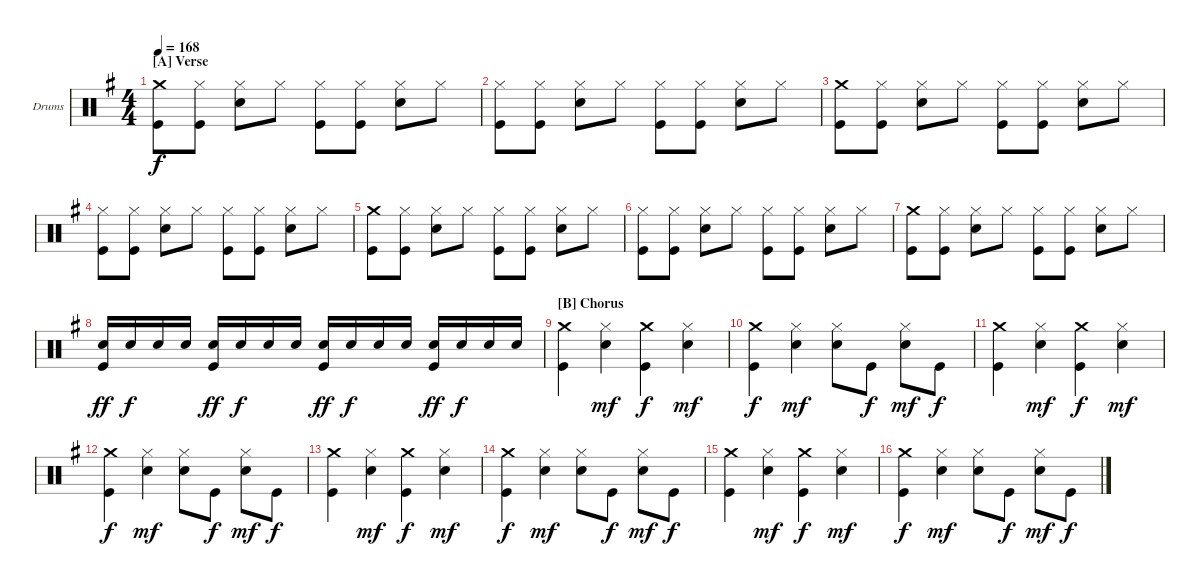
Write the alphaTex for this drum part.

\defaultSystemsLayout 4
\bracketExtendMode groupsimilarinstruments
\firstSystemTrackNameOrientation horizontal
\otherSystemsTrackNameOrientation horizontal
\track ("Drumkit" "Drums") {instrument percussion}
\staff {score}
\articulation defaults
\ts (4 4)
\section ("A" "Verse")
\tempo 168
\clef neutral
\ks g
("Crash medium (hit)" "Kick (hit)").8{dy f} ("Hi-Hat (closed)" "Kick (hit)").8 ("Hi-Hat (closed)" "Snare (hit) 2").8 "Hi-Hat (closed)".8 ("Hi-Hat (closed)" "Kick (hit)").8 ("Hi-Hat (closed)" "Kick (hit)").8 ("Hi-Hat (closed)" "Snare (hit) 2").8 "Hi-Hat (closed)".8 |
("Hi-Hat (closed)" "Kick (hit)").8 ("Hi-Hat (closed)" "Kick (hit)").8 ("Hi-Hat (closed)" "Snare (hit) 2").8 "Hi-Hat (closed)".8 ("Hi-Hat (closed)" "Kick (hit)").8 ("Hi-Hat (closed)" "Kick (hit)").8 ("Hi-Hat (closed)" "Snare (hit) 2").8 "Hi-Hat (closed)".8 |
("Crash medium (hit)" "Kick (hit)").8 ("Hi-Hat (closed)" "Kick (hit)").8 ("Hi-Hat (closed)" "Snare (hit) 2").8 "Hi-Hat (closed)".8 ("Hi-Hat (closed)" "Kick (hit)").8 ("Hi-Hat (closed)" "Kick (hit)").8 ("Hi-Hat (closed)" "Snare (hit) 2").8 "Hi-Hat (closed)".8 |
("Hi-Hat (closed)" "Kick (hit)").8 ("Hi-Hat (closed)" "Kick (hit)").8 ("Hi-Hat (closed)" "Snare (hit) 2").8 "Hi-Hat (closed)".8 ("Hi-Hat (closed)" "Kick (hit)").8 ("Hi-Hat (closed)" "Kick (hit)").8 ("Hi-Hat (closed)" "Snare (hit) 2").8 "Hi-Hat (closed)".8 |
("Crash medium (hit)" "Kick (hit)").8 ("Hi-Hat (closed)" "Kick (hit)").8 ("Hi-Hat (closed)" "Snare (hit) 2").8 "Hi-Hat (closed)".8 ("Hi-Hat (closed)" "Kick (hit)").8 ("Hi-Hat (closed)" "Kick (hit)").8 ("Hi-Hat (closed)" "Snare (hit) 2").8 "Hi-Hat (closed)".8 |
("Hi-Hat (closed)" "Kick (hit)").8 ("Hi-Hat (closed)" "Kick (hit)").8 ("Hi-Hat (closed)" "Snare (hit) 2").8 "Hi-Hat (closed)".8 ("Hi-Hat (closed)" "Kick (hit)").8 ("Hi-Hat (closed)" "Kick (hit)").8 ("Hi-Hat (closed)" "Snare (hit) 2").8 "Hi-Hat (closed)".8 |
("Crash medium (hit)" "Kick (hit)").8 ("Hi-Hat (closed)" "Kick (hit)").8 ("Hi-Hat (closed)" "Snare (hit) 2").8 "Hi-Hat (closed)".8 ("Hi-Hat (closed)" "Kick (hit)").8 ("Hi-Hat (closed)" "Kick (hit)").8 ("Hi-Hat (closed)" "Snare (hit) 2").8 "Hi-Hat (closed)".8 |
("Snare (hit) 2" "Kick (hit)").16{dy ff} "Snare (hit) 2".16{dy f} "Snare (hit) 2".16 "Snare (hit) 2".16 ("Snare (hit) 2" "Kick (hit)").16{dy ff} "Snare (hit) 2".16{dy f} "Snare (hit) 2".16 "Snare (hit) 2".16 ("Snare (hit) 2" "Kick (hit)").16{dy ff} "Snare (hit) 2".16{dy f} "Snare (hit) 2".16 "Snare (hit) 2".16 ("Snare (hit) 2" "Kick (hit)").16{dy ff} "Snare (hit) 2".16{dy f} "Snare (hit) 2".16 "Snare (hit) 2".16 |
\section ("B" "Chorus")
("Crash medium (hit)" "Kick (hit)").4 ("Hi-Hat (closed)" "Snare (hit) 2").4{dy mf} ("Crash medium (hit)" "Kick (hit)").4{dy f} ("Hi-Hat (closed)" "Snare (hit) 2").4{dy mf} |
("Crash medium (hit)" "Kick (hit)").4{dy f} ("Hi-Hat (closed)" "Snare (hit) 2").4{dy mf} ("Hi-Hat (closed)" "Snare (hit) 2").8 "Kick (hit)".8{dy f} ("Hi-Hat (closed)" "Snare (hit) 2").8{dy mf} "Kick (hit)".8{dy f} |
("Crash medium (hit)" "Kick (hit)").4 ("Hi-Hat (closed)" "Snare (hit) 2").4{dy mf} ("Crash medium (hit)" "Kick (hit)").4{dy f} ("Hi-Hat (closed)" "Snare (hit) 2").4{dy mf} |
("Crash medium (hit)" "Kick (hit)").4{dy f} ("Hi-Hat (closed)" "Snare (hit) 2").4{dy mf} ("Hi-Hat (closed)" "Snare (hit) 2").8 "Kick (hit)".8{dy f} ("Hi-Hat (closed)" "Snare (hit) 2").8{dy mf} "Kick (hit)".8{dy f} |
("Crash medium (hit)" "Kick (hit)").4 ("Hi-Hat (closed)" "Snare (hit) 2").4{dy mf} ("Crash medium (hit)" "Kick (hit)").4{dy f} ("Hi-Hat (closed)" "Snare (hit) 2").4{dy mf} |
("Crash medium (hit)" "Kick (hit)").4{dy f} ("Hi-Hat (closed)" "Snare (hit) 2").4{dy mf} ("Hi-Hat (closed)" "Snare (hit) 2").8 "Kick (hit)".8{dy f} ("Hi-Hat (closed)" "Snare (hit) 2").8{dy mf} "Kick (hit)".8{dy f} |
("Crash medium (hit)" "Kick (hit)").4 ("Hi-Hat (closed)" "Snare (hit) 2").4{dy mf} ("Crash medium (hit)" "Kick (hit)").4{dy f} ("Hi-Hat (closed)" "Snare (hit) 2").4{dy mf} |
("Crash medium (hit)" "Kick (hit)").4{dy f} ("Hi-Hat (closed)" "Snare (hit) 2").4{dy mf} ("Hi-Hat (closed)" "Snare (hit) 2").8 "Kick (hit)".8{dy f} ("Hi-Hat (closed)" "Snare (hit) 2").8{dy mf} "Kick (hit)".8{dy f}
